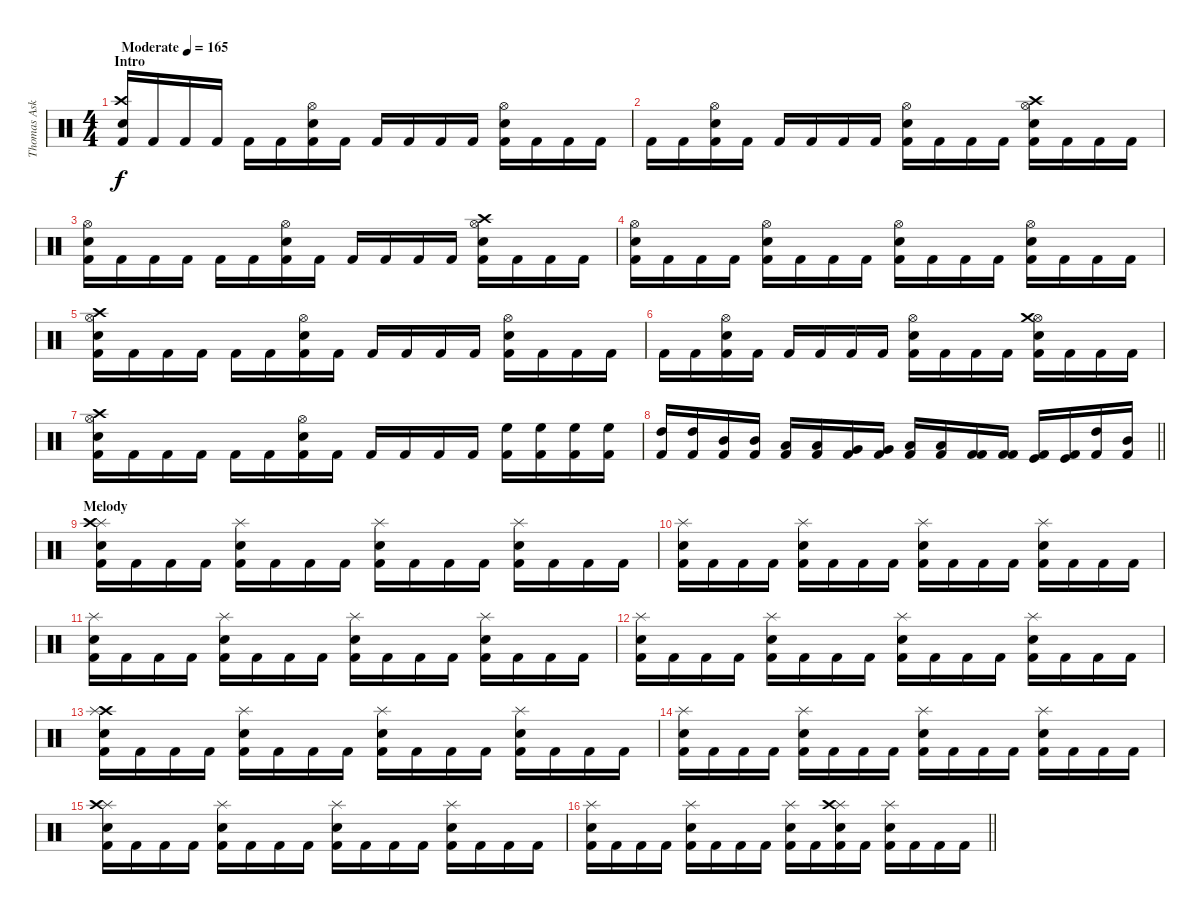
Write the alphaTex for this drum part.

\track ("Thomas Asklund" "Thomas Ask") {instrument percussion}
\staff {score}
\articulation defaults
\ts (4 4)
\section ("" "Intro")
\tempo (165 "Moderate")
\clef neutral
\ks c
("Snare (hit) 2" "Crash high (hit)" "Kick (hit) 2").16{dy f} "Kick (hit) 2".16 "Kick (hit) 2".16 "Kick (hit) 2".16 "Kick (hit) 2".16 "Kick (hit) 2".16 ("Snare (hit) 2" "Hi-Hat (open)" "Kick (hit) 2").16 "Kick (hit) 2".16 "Kick (hit) 2".16 "Kick (hit) 2".16 "Kick (hit) 2".16 "Kick (hit) 2".16 ("Snare (hit) 2" "Hi-Hat (open)" "Kick (hit) 2").16 "Kick (hit) 2".16 "Kick (hit) 2".16 "Kick (hit) 2".16 |
"Kick (hit) 2".16 "Kick (hit) 2".16 ("Hi-Hat (open)" "Snare (hit) 2" "Kick (hit) 2").16 "Kick (hit) 2".16 "Kick (hit) 2".16 "Kick (hit) 2".16 "Kick (hit) 2".16 "Kick (hit) 2".16 ("Hi-Hat (open)" "Snare (hit) 2" "Kick (hit) 2").16 "Kick (hit) 2".16 "Kick (hit) 2".16 "Kick (hit) 2".16 ("Hi-Hat (open)" "Snare (hit) 2" "Crash high (hit)" "Kick (hit) 2").16 "Kick (hit) 2".16 "Kick (hit) 2".16 "Kick (hit) 2".16 |
("Hi-Hat (open)" "Snare (hit) 2" "Kick (hit) 2").16 "Kick (hit) 2".16 "Kick (hit) 2".16 "Kick (hit) 2".16 "Kick (hit) 2".16 "Kick (hit) 2".16 ("Hi-Hat (open)" "Snare (hit) 2" "Kick (hit) 2").16 "Kick (hit) 2".16 "Kick (hit) 2".16 "Kick (hit) 2".16 "Kick (hit) 2".16 "Kick (hit) 2".16 ("Hi-Hat (open)" "Snare (hit) 2" "Crash high (hit)" "Kick (hit) 2").16 "Kick (hit) 2".16 "Kick (hit) 2".16 "Kick (hit) 2".16 |
("Hi-Hat (open)" "Snare (hit) 2" "Kick (hit) 2").16 "Kick (hit) 2".16 "Kick (hit) 2".16 "Kick (hit) 2".16 ("Hi-Hat (open)" "Snare (hit) 2" "Kick (hit) 2").16 "Kick (hit) 2".16 "Kick (hit) 2".16 "Kick (hit) 2".16 ("Hi-Hat (open)" "Snare (hit) 2" "Kick (hit) 2").16 "Kick (hit) 2".16 "Kick (hit) 2".16 "Kick (hit) 2".16 ("Hi-Hat (open)" "Snare (hit) 2" "Kick (hit) 2").16 "Kick (hit) 2".16 "Kick (hit) 2".16 "Kick (hit) 2".16 |
("Snare (hit) 2" "Hi-Hat (open)" "Crash high (hit)" "Kick (hit) 2").16 "Kick (hit) 2".16 "Kick (hit) 2".16 "Kick (hit) 2".16 "Kick (hit) 2".16 "Kick (hit) 2".16 ("Hi-Hat (open)" "Snare (hit) 2" "Kick (hit) 2").16 "Kick (hit) 2".16 "Kick (hit) 2".16 "Kick (hit) 2".16 "Kick (hit) 2".16 "Kick (hit) 2".16 ("Hi-Hat (open)" "Snare (hit) 2" "Kick (hit) 2").16 "Kick (hit) 2".16 "Kick (hit) 2".16 "Kick (hit) 2".16 |
"Kick (hit) 2".16 "Kick (hit) 2".16 ("Hi-Hat (open)" "Snare (hit) 2" "Kick (hit) 2").16 "Kick (hit) 2".16 "Kick (hit) 2".16 "Kick (hit) 2".16 "Kick (hit) 2".16 "Kick (hit) 2".16 ("Hi-Hat (open)" "Snare (hit) 2" "Kick (hit) 2").16 "Kick (hit) 2".16 "Kick (hit) 2".16 "Kick (hit) 2".16 ("Hi-Hat (open)" "Snare (hit) 2" "Crash medium (hit)" "Kick (hit) 2").16 "Kick (hit) 2".16 "Kick (hit) 2".16 "Kick (hit) 2".16 |
("Hi-Hat (open)" "Snare (hit) 2" "Crash high (hit)" "Kick (hit) 2").16 "Kick (hit) 2".16 "Kick (hit) 2".16 "Kick (hit) 2".16 "Kick (hit) 2".16 "Kick (hit) 2".16 ("Hi-Hat (open)" "Snare (hit) 2" "Kick (hit) 2").16 "Kick (hit) 2".16 "Kick (hit) 2".16 "Kick (hit) 2".16 "Kick (hit) 2".16 "Kick (hit) 2".16 ("High Floor Tom (hit)" "Kick (hit) 2").16 ("High Floor Tom (hit)" "Kick (hit) 2").16 ("High Floor Tom (hit)" "Kick (hit) 2").16 ("High Floor Tom (hit)" "Kick (hit) 2").16 |
\barLineRight lightlight
("High Tom (hit)" "Kick (hit) 2").16 ("High Tom (hit)" "Kick (hit) 2").16 ("Mid Tom (hit)" "Kick (hit) 2").16 ("Mid Tom (hit)" "Kick (hit) 2").16 ("Low Tom (hit)" "Kick (hit) 2").16 ("Low Tom (hit)" "Kick (hit) 2").16 ("Very Low Tom (hit)" "Kick (hit) 2").16 ("Very Low Tom (hit)" "Kick (hit) 2").16 ("Low Floor Tom (hit)" "Kick (hit) 2").16 ("Low Floor Tom (hit)" "Kick (hit) 2").16 ("Kick (hit) 2" "Kick (hit) 2").16 ("Kick (hit) 2" "Kick (hit) 2").16 ("Kick (hit)" "Kick (hit) 2").16 ("Kick (hit)" "Kick (hit) 2").16 ("High Tom (hit)" "Kick (hit) 2").16 ("Mid Tom (hit)" "Kick (hit) 2").16 |
\section ("" "Melody")
("Splash (hit)" "Crash high (hit)" "Snare (hit) 2" "Kick (hit) 2").16 "Kick (hit) 2".16 "Kick (hit) 2".16 "Kick (hit) 2".16 ("Splash (hit)" "Snare (hit) 2" "Kick (hit) 2").16 "Kick (hit) 2".16 "Kick (hit) 2".16 "Kick (hit) 2".16 ("Splash (hit)" "Snare (hit) 2" "Kick (hit) 2").16 "Kick (hit) 2".16 "Kick (hit) 2".16 "Kick (hit) 2".16 ("Splash (hit)" "Snare (hit) 2" "Kick (hit) 2").16 "Kick (hit) 2".16 "Kick (hit) 2".16 "Kick (hit) 2".16 |
("Splash (hit)" "Snare (hit) 2" "Kick (hit) 2").16 "Kick (hit) 2".16 "Kick (hit) 2".16 "Kick (hit) 2".16 ("Splash (hit)" "Snare (hit) 2" "Kick (hit) 2").16 "Kick (hit) 2".16 "Kick (hit) 2".16 "Kick (hit) 2".16 ("Splash (hit)" "Snare (hit) 2" "Kick (hit) 2").16 "Kick (hit) 2".16 "Kick (hit) 2".16 "Kick (hit) 2".16 ("Splash (hit)" "Snare (hit) 2" "Kick (hit) 2").16 "Kick (hit) 2".16 "Kick (hit) 2".16 "Kick (hit) 2".16 |
("Splash (hit)" "Snare (hit) 2" "Kick (hit) 2").16 "Kick (hit) 2".16 "Kick (hit) 2".16 "Kick (hit) 2".16 ("Splash (hit)" "Snare (hit) 2" "Kick (hit) 2").16 "Kick (hit) 2".16 "Kick (hit) 2".16 "Kick (hit) 2".16 ("Splash (hit)" "Snare (hit) 2" "Kick (hit) 2").16 "Kick (hit) 2".16 "Kick (hit) 2".16 "Kick (hit) 2".16 ("Splash (hit)" "Snare (hit) 2" "Kick (hit) 2").16 "Kick (hit) 2".16 "Kick (hit) 2".16 "Kick (hit) 2".16 |
("Splash (hit)" "Snare (hit) 2" "Kick (hit) 2").16 "Kick (hit) 2".16 "Kick (hit) 2".16 "Kick (hit) 2".16 ("Splash (hit)" "Snare (hit) 2" "Kick (hit) 2").16 "Kick (hit) 2".16 "Kick (hit) 2".16 "Kick (hit) 2".16 ("Splash (hit)" "Snare (hit) 2" "Kick (hit) 2").16 "Kick (hit) 2".16 "Kick (hit) 2".16 "Kick (hit) 2".16 ("Splash (hit)" "Snare (hit) 2" "Kick (hit) 2").16 "Kick (hit) 2".16 "Kick (hit) 2".16 "Kick (hit) 2".16 |
("Crash high (hit)" "Splash (hit)" "Snare (hit) 2" "Kick (hit) 2").16 "Kick (hit) 2".16 "Kick (hit) 2".16 "Kick (hit) 2".16 ("Splash (hit)" "Snare (hit) 2" "Kick (hit) 2").16 "Kick (hit) 2".16 "Kick (hit) 2".16 "Kick (hit) 2".16 ("Splash (hit)" "Snare (hit) 2" "Kick (hit) 2").16 "Kick (hit) 2".16 "Kick (hit) 2".16 "Kick (hit) 2".16 ("Splash (hit)" "Snare (hit) 2" "Kick (hit) 2").16 "Kick (hit) 2".16 "Kick (hit) 2".16 "Kick (hit) 2".16 |
("Splash (hit)" "Snare (hit) 2" "Kick (hit) 2").16 "Kick (hit) 2".16 "Kick (hit) 2".16 "Kick (hit) 2".16 ("Splash (hit)" "Snare (hit) 2" "Kick (hit) 2").16 "Kick (hit) 2".16 "Kick (hit) 2".16 "Kick (hit) 2".16 ("Splash (hit)" "Snare (hit) 2" "Kick (hit) 2").16 "Kick (hit) 2".16 "Kick (hit) 2".16 "Kick (hit) 2".16 ("Splash (hit)" "Snare (hit) 2" "Kick (hit) 2").16 "Kick (hit) 2".16 "Kick (hit) 2".16 "Kick (hit) 2".16 |
("Splash (hit)" "Crash high (hit)" "Snare (hit) 2" "Kick (hit) 2").16 "Kick (hit) 2".16 "Kick (hit) 2".16 "Kick (hit) 2".16 ("Splash (hit)" "Snare (hit) 2" "Kick (hit) 2").16 "Kick (hit) 2".16 "Kick (hit) 2".16 "Kick (hit) 2".16 ("Splash (hit)" "Snare (hit) 2" "Kick (hit) 2").16 "Kick (hit) 2".16 "Kick (hit) 2".16 "Kick (hit) 2".16 ("Splash (hit)" "Snare (hit) 2" "Kick (hit) 2").16 "Kick (hit) 2".16 "Kick (hit) 2".16 "Kick (hit) 2".16 |
\barLineRight lightlight
("Splash (hit)" "Snare (hit) 2" "Kick (hit) 2").16 "Kick (hit) 2".16 "Kick (hit) 2".16 "Kick (hit) 2".16 ("Splash (hit)" "Snare (hit) 2" "Kick (hit) 2").16 "Kick (hit) 2".16 "Kick (hit) 2".16 "Kick (hit) 2".16 ("Splash (hit)" "Snare (hit) 2" "Kick (hit) 2").16 "Kick (hit) 2".16 ("Splash (hit)" "Snare (hit) 2" "Crash high (hit)" "Kick (hit) 2").16 "Kick (hit) 2".16 ("Splash (hit)" "Snare (hit) 2" "Kick (hit) 2").16 "Kick (hit) 2".16 "Kick (hit) 2".16 "Kick (hit) 2".16
